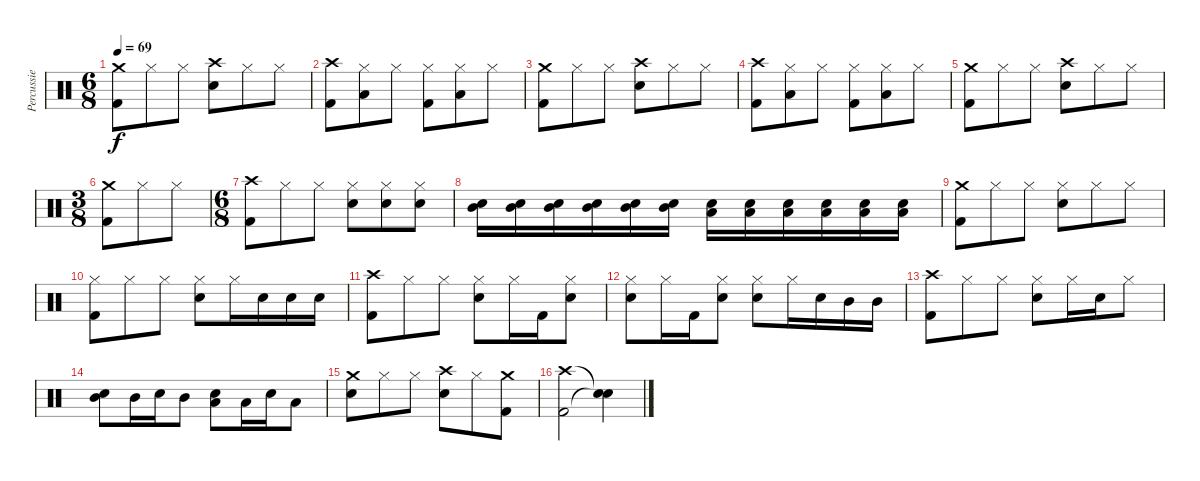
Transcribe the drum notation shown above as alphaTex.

\track ("Percussie" "Percussie") {instrument percussion}
\staff {score}
\articulation defaults
\ts (6 8)
\tempo 69
\clef neutral
\ks c
("Crash medium (hit)" "Kick (hit) 2").8{dy f} "Hi-Hat (closed)".8 "Hi-Hat (closed)".8 ("Crash high (hit)" "Snare (hit) 2").8 "Hi-Hat (closed)".8 "Hi-Hat (closed)".8 |
("Crash high (hit)" "Kick (hit) 2").8 ("Hi-Hat (closed)" "Low Tom (hit)").8 "Hi-Hat (closed)".8 ("Hi-Hat (closed)" "Kick (hit) 2").8 ("Hi-Hat (closed)" "Low Tom (hit)").8 "Hi-Hat (closed)".8 |
("Crash medium (hit)" "Kick (hit) 2").8 "Hi-Hat (closed)".8 "Hi-Hat (closed)".8 ("Crash high (hit)" "Snare (hit) 2").8 "Hi-Hat (closed)".8 "Hi-Hat (closed)".8 |
("Crash high (hit)" "Kick (hit) 2").8 ("Hi-Hat (closed)" "Low Tom (hit)").8 "Hi-Hat (closed)".8 ("Hi-Hat (closed)" "Kick (hit) 2").8 ("Hi-Hat (closed)" "Low Tom (hit)").8 "Hi-Hat (closed)".8 |
("Crash medium (hit)" "Kick (hit) 2").8 "Hi-Hat (closed)".8 "Hi-Hat (closed)".8 ("Crash high (hit)" "Snare (hit) 2").8 "Hi-Hat (closed)".8 "Hi-Hat (closed)".8 |
\ts (3 8)
("Crash medium (hit)" "Kick (hit) 2").8 "Hi-Hat (closed)".8 "Hi-Hat (closed)".8 |
\ts (6 8)
("Crash high (hit)" "Kick (hit) 2").8 "Hi-Hat (closed)".8 "Hi-Hat (closed)".8 ("Hi-Hat (closed)" "Snare (hit) 2").8 ("Hi-Hat (closed)" "Snare (hit) 2").8 ("Hi-Hat (closed)" "Snare (hit) 2").8 |
("Mid Tom (hit)" "Snare (hit) 2").16 ("Mid Tom (hit)" "Snare (hit) 2").16 ("Mid Tom (hit)" "Snare (hit) 2").16 ("Mid Tom (hit)" "Snare (hit) 2").16 ("Mid Tom (hit)" "Snare (hit) 2").16 ("Mid Tom (hit)" "Snare (hit) 2").16 ("Low Tom (hit)" "Snare (hit) 2").16 ("Low Tom (hit)" "Snare (hit) 2").16 ("Low Tom (hit)" "Snare (hit) 2").16 ("Low Tom (hit)" "Snare (hit) 2").16 ("Low Tom (hit)" "Snare (hit) 2").16 ("Low Tom (hit)" "Snare (hit) 2").16 |
("Crash medium (hit)" "Kick (hit) 2").8 "Hi-Hat (closed)".8 "Hi-Hat (closed)".8 ("Hi-Hat (closed)" "Snare (hit) 2").8 "Hi-Hat (closed)".8 "Hi-Hat (closed)".8 |
("Hi-Hat (closed)" "Kick (hit) 2").8 "Hi-Hat (closed)".8 "Hi-Hat (closed)".8 ("Hi-Hat (closed)" "Snare (hit) 2").8 "Hi-Hat (closed)".16 "Snare (hit) 2".16 "Snare (hit) 2".16 "Snare (hit) 2".16 |
("Crash high (hit)" "Kick (hit) 2").8 "Hi-Hat (closed)".8 "Hi-Hat (closed)".8 ("Hi-Hat (closed)" "Snare (hit) 2").8 "Hi-Hat (closed)".16 "Kick (hit) 2".16 ("Hi-Hat (closed)" "Snare (hit) 2").8 |
("Hi-Hat (closed)" "Snare (hit) 2").8 "Hi-Hat (closed)".16 "Kick (hit) 2".16 ("Hi-Hat (closed)" "Snare (hit) 2").8 ("Hi-Hat (closed)" "Snare (hit) 2").8 "Hi-Hat (closed)".16 "Snare (hit) 2".16 "Mid Tom (hit)".16 "Mid Tom (hit)".16 |
("Crash high (hit)" "Kick (hit) 2").8 "Hi-Hat (closed)".8 "Hi-Hat (closed)".8 ("Hi-Hat (closed)" "Snare (hit) 2").8 "Hi-Hat (closed)".16 "Snare (hit) 2".16 "Hi-Hat (closed)".8 |
("Snare (hit) 2" "Mid Tom (hit)").8 "Mid Tom (hit)".16 "Snare (hit) 2".16 "Mid Tom (hit)".8 ("Snare (hit) 2" "Low Tom (hit)").8 "Low Tom (hit)".16 "Snare (hit) 2".16 "Low Tom (hit)".8 |
("Crash medium (hit)" "Snare (hit) 2").8 "Hi-Hat (closed)".8 "Hi-Hat (closed)".8 ("Crash high (hit)" "Snare (hit) 2").8 "Hi-Hat (closed)".8 ("Crash medium (hit)" "Kick (hit) 2").8 |
("Crash high (hit)" "Kick (hit) 2").2 ("Snare (hit)"{t} "Snare (hit)"{t}).4
